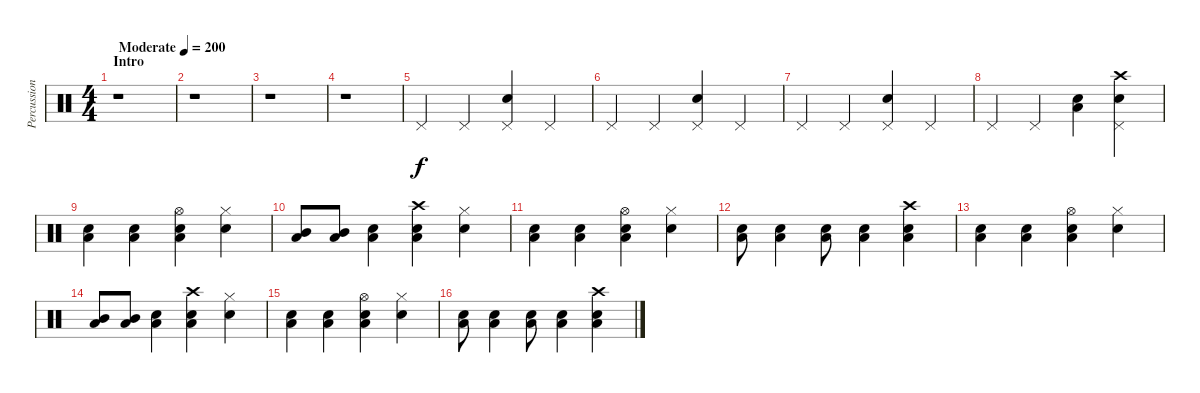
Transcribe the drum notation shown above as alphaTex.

\track ("Percussion" "Percussion") {instrument percussion}
\staff {score}
\articulation defaults
\ts (4 4)
\section ("" "Intro")
\tempo (200 "Moderate")
\clef neutral
\ks c
r.1{dy f} |
r.1 |
r.1 |
r.1 |
"Pedal Hi-Hat (hit)".4 "Pedal Hi-Hat (hit)".4 ("Electric Snare (hit)" "Pedal Hi-Hat (hit)").4 "Pedal Hi-Hat (hit)".4 |
"Pedal Hi-Hat (hit)".4 "Pedal Hi-Hat (hit)".4 ("Electric Snare (hit)" "Pedal Hi-Hat (hit)").4 "Pedal Hi-Hat (hit)".4 |
"Pedal Hi-Hat (hit)".4 "Pedal Hi-Hat (hit)".4 ("Electric Snare (hit)" "Pedal Hi-Hat (hit)").4 "Pedal Hi-Hat (hit)".4 |
"Pedal Hi-Hat (hit)".4 "Pedal Hi-Hat (hit)".4 ("Electric Snare (hit)" "Low Tom (hit)").4 ("Electric Snare (hit)" "Pedal Hi-Hat (hit)" "Crash high (hit)").4 |
("Electric Snare (hit)" "Low Tom (hit)").4 ("Electric Snare (hit)" "Low Tom (hit)").4 ("Snare (hit) 2" "Low Tom (hit)" "Hi-Hat (open)").4 ("Electric Snare (hit)" "Hi-Hat (closed)").4 |
("Mid Tom (hit)" "Low Tom (hit)").8 ("Mid Tom (hit)" "Low Tom (hit)").8 ("Snare (hit) 2" "Low Tom (hit)").4 ("Electric Snare (hit)" "Low Tom (hit)" "Crash high (hit)").4 ("Electric Snare (hit)" "Hi-Hat (closed)").4 |
("Electric Snare (hit)" "Low Tom (hit)").4 ("Electric Snare (hit)" "Low Tom (hit)").4 ("Snare (hit) 2" "Low Tom (hit)" "Hi-Hat (open)").4 ("Electric Snare (hit)" "Hi-Hat (closed)").4 |
("Snare (hit) 2" "Low Tom (hit)").8 ("Snare (hit) 2" "Low Tom (hit)").4 ("Snare (hit) 2" "Low Tom (hit)").8 ("Snare (hit) 2" "Low Tom (hit)").4 ("Electric Snare (hit)" "Low Tom (hit)" "Crash high (hit)").4 |
("Electric Snare (hit)" "Low Tom (hit)").4 ("Electric Snare (hit)" "Low Tom (hit)").4 ("Snare (hit) 2" "Low Tom (hit)" "Hi-Hat (open)").4 ("Electric Snare (hit)" "Hi-Hat (closed)").4 |
("Mid Tom (hit)" "Low Tom (hit)").8 ("Mid Tom (hit)" "Low Tom (hit)").8 ("Snare (hit) 2" "Low Tom (hit)").4 ("Electric Snare (hit)" "Low Tom (hit)" "Crash high (hit)").4 ("Electric Snare (hit)" "Hi-Hat (closed)").4 |
("Electric Snare (hit)" "Low Tom (hit)").4 ("Electric Snare (hit)" "Low Tom (hit)").4 ("Snare (hit) 2" "Low Tom (hit)" "Hi-Hat (open)").4 ("Electric Snare (hit)" "Hi-Hat (closed)").4 |
("Snare (hit) 2" "Low Tom (hit)").8 ("Snare (hit) 2" "Low Tom (hit)").4 ("Snare (hit) 2" "Low Tom (hit)").8 ("Snare (hit) 2" "Low Tom (hit)").4 ("Electric Snare (hit)" "Low Tom (hit)" "Crash high (hit)").4
